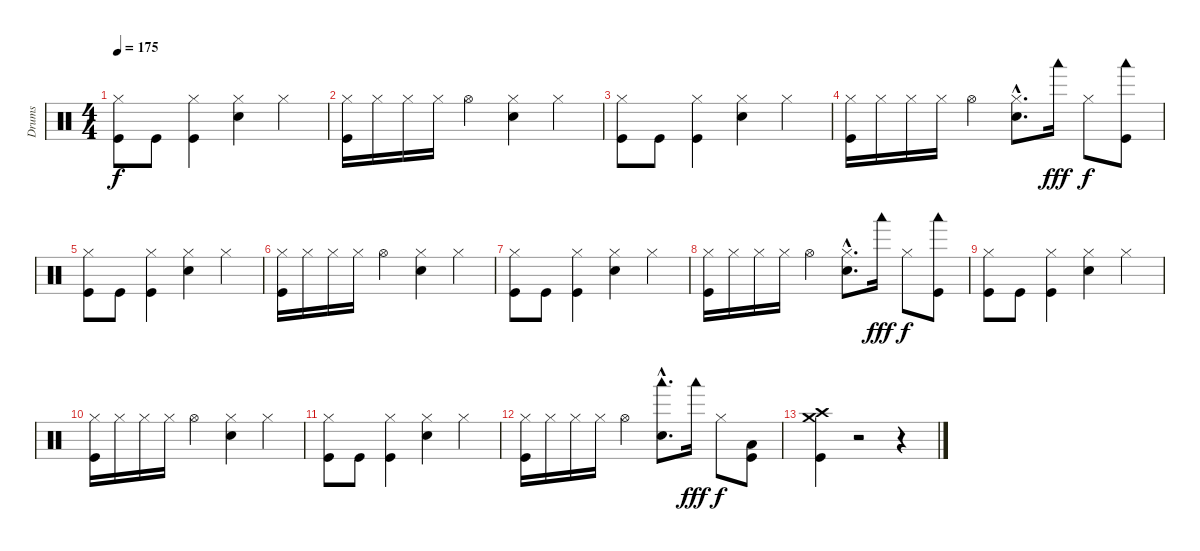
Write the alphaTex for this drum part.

\track ("Drums" "Drums") {instrument percussion}
\staff {score}
\articulation defaults
\ts (4 4)
\tempo 175
\clef neutral
\ks c
("Hi-Hat (closed)" "Kick (hit)").8{dy f} "Kick (hit)".8 ("Hi-Hat (closed)" "Kick (hit)").4 ("Hi-Hat (closed)" "Electric Snare (hit)").4 "Hi-Hat (closed)".4 |
("Hi-Hat (closed)" "Kick (hit)").16 "Hi-Hat (closed)".16 "Hi-Hat (closed)".16 "Hi-Hat (closed)".16 "Hi-Hat (open)".4 ("Hi-Hat (closed)" "Electric Snare (hit)").4 "Hi-Hat (closed)".4 |
("Hi-Hat (closed)" "Kick (hit)").8 "Kick (hit)".8 ("Hi-Hat (closed)" "Kick (hit)").4 ("Hi-Hat (closed)" "Electric Snare (hit)").4 "Hi-Hat (closed)".4 |
("Hi-Hat (closed)" "Kick (hit)").16 "Hi-Hat (closed)".16 "Hi-Hat (closed)".16 "Hi-Hat (closed)".16 "Hi-Hat (open)".4 ("Hi-Hat (closed)"{hac} "Electric Snare (hit)"{hac}).8{d} "Woodblock low (hit)".16{dy fff} "Hi-Hat (closed)".8{dy f} ("Woodblock low (hit)" "Kick (hit)").8 |
("Hi-Hat (closed)" "Kick (hit)").8 "Kick (hit)".8 ("Hi-Hat (closed)" "Kick (hit)").4 ("Hi-Hat (closed)" "Electric Snare (hit)").4 "Hi-Hat (closed)".4 |
("Hi-Hat (closed)" "Kick (hit)").16 "Hi-Hat (closed)".16 "Hi-Hat (closed)".16 "Hi-Hat (closed)".16 "Hi-Hat (open)".4 ("Hi-Hat (closed)" "Electric Snare (hit)").4 "Hi-Hat (closed)".4 |
("Hi-Hat (closed)" "Kick (hit)").8 "Kick (hit)".8 ("Hi-Hat (closed)" "Kick (hit)").4 ("Hi-Hat (closed)" "Electric Snare (hit)").4 "Hi-Hat (closed)".4 |
("Hi-Hat (closed)" "Kick (hit)").16 "Hi-Hat (closed)".16 "Hi-Hat (closed)".16 "Hi-Hat (closed)".16 "Hi-Hat (open)".4 ("Hi-Hat (closed)"{hac} "Electric Snare (hit)"{hac}).8{d} "Woodblock low (hit)".16{dy fff} "Hi-Hat (closed)".8{dy f} ("Woodblock low (hit)" "Kick (hit)").8 |
("Hi-Hat (closed)" "Kick (hit)").8 "Kick (hit)".8 ("Hi-Hat (closed)" "Kick (hit)").4 ("Hi-Hat (closed)" "Electric Snare (hit)").4 "Hi-Hat (closed)".4 |
("Hi-Hat (closed)" "Kick (hit)").16 "Hi-Hat (closed)".16 "Hi-Hat (closed)".16 "Hi-Hat (closed)".16 "Hi-Hat (open)".4 ("Hi-Hat (closed)" "Electric Snare (hit)").4 "Hi-Hat (closed)".4 |
("Hi-Hat (closed)" "Kick (hit)").8 "Kick (hit)".8 ("Hi-Hat (closed)" "Kick (hit)").4 ("Hi-Hat (closed)" "Electric Snare (hit)").4 "Hi-Hat (closed)".4 |
("Hi-Hat (closed)" "Kick (hit)").16 "Hi-Hat (closed)".16 "Hi-Hat (closed)".16 "Hi-Hat (closed)".16 "Hi-Hat (open)".4 ("Woodblock low (hit)"{hac} "Electric Snare (hit)"{hac}).8{d} "Woodblock low (hit)".16{dy fff} "Hi-Hat (closed)".8{dy f} ("Low Tom (hit)" "Kick (hit)").8 |
("Crash high (hit)" "Crash medium (hit)" "Kick (hit)").4 r.2 r.4
